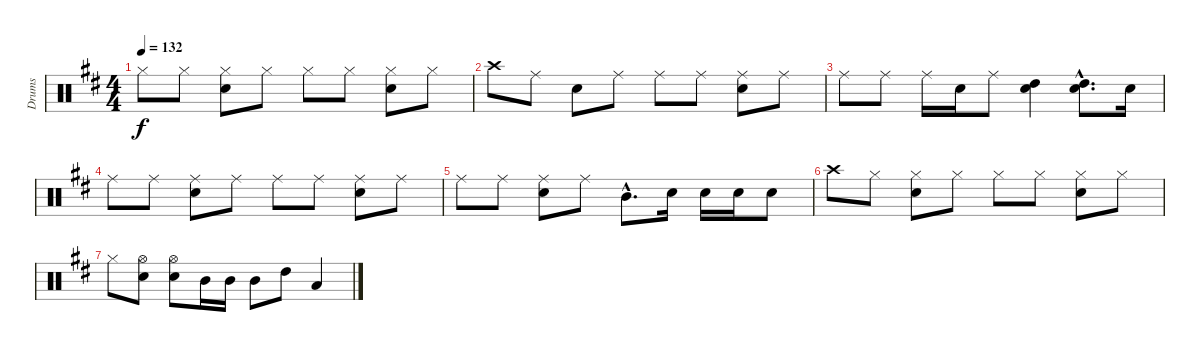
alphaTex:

\track ("Drums" "Drums") {instrument percussion}
\staff {score}
\articulation defaults
\ts (4 4)
\tempo 132
\clef neutral
\ks d "Hi-Hat (closed)".8{dy f} "Hi-Hat (closed)".8
("Hi-Hat (closed)" "Snare (hit) 2").8 "Hi-Hat (closed)".8 "Hi-Hat (closed)".8 "Hi-Hat (closed)".8 ("Hi-Hat (closed)" "Snare (hit) 2").8 "Hi-Hat (closed)".8 |
"Crash high (hit)".8 "Ride (middle)".8 "Snare (hit) 2".8 "Ride (middle)".8 "Ride (middle)".8 "Ride (middle)".8 ("Ride (middle)" "Snare (hit) 2").8 "Ride (middle)".8 |
"Ride (middle)".8 "Ride (middle)".8 "Ride (middle)".16 "Snare (hit) 2".16 "Ride (middle)".8 ("High Tom (hit)" "Snare (hit) 2").4 ("High Tom (hit)"{hac} "Snare (hit) 2"{hac}).8{d} "Snare (hit) 2".16 |
"Ride (middle)".8 "Ride (middle)".8 ("Ride (middle)" "Snare (hit) 2").8 "Ride (middle)".8 "Ride (middle)".8 "Ride (middle)".8 ("Ride (middle)" "Snare (hit) 2").8 "Ride (middle)".8 |
"Ride (middle)".8 "Ride (middle)".8 ("Ride (middle)" "Snare (hit) 2").8 "Ride (middle)".8 "Mid Tom (hit)"{hac}.8{d} "Snare (hit) 2".16 "Snare (hit) 2".16 "Snare (hit) 2".16 "Snare (hit) 2".8 |
"Crash high (hit)".8 "Hi-Hat (closed)".8 ("Hi-Hat (closed)" "Snare (hit) 2").8 "Hi-Hat (closed)".8 "Hi-Hat (closed)".8 "Hi-Hat (closed)".8 ("Hi-Hat (closed)" "Snare (hit) 2").8 "Hi-Hat (closed)".8 |
"Hi-Hat (closed)".8 ("Hi-Hat (open)" "Snare (hit) 2").8 ("Hi-Hat (open)" "Snare (hit) 2").8 "Mid Tom (hit)".16 "Mid Tom (hit)".16 "Mid Tom (hit)".8 "High Tom (hit)".8 "Low Tom (hit)".4
